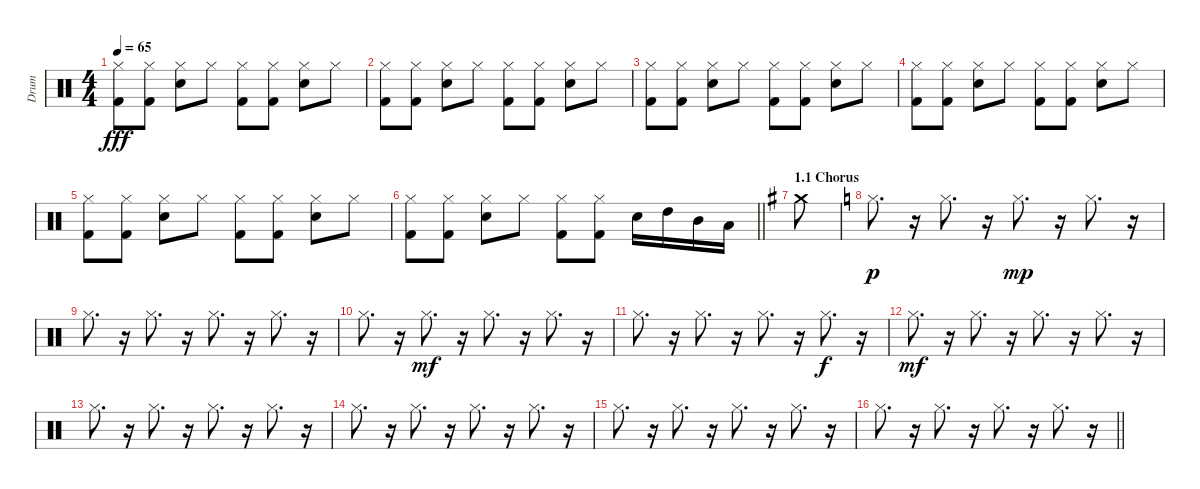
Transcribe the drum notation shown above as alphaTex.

\track ("Drum" "Drum") {instrument percussion}
\staff {score}
\articulation defaults
\ts (4 4)
\tempo 65
\clef neutral
\ks c
("Hi-Hat (closed)" "Kick (hit) 2").8{dy fff} ("Kick (hit) 2" "Hi-Hat (closed)").8 ("Electric Snare (hit)" "Hi-Hat (closed)").8 "Hi-Hat (closed)".8 ("Kick (hit) 2" "Hi-Hat (closed)").8 ("Kick (hit) 2" "Hi-Hat (closed)").8 ("Electric Snare (hit)" "Hi-Hat (closed)").8 "Hi-Hat (closed)".8 |
("Hi-Hat (closed)" "Kick (hit) 2").8 ("Kick (hit) 2" "Hi-Hat (closed)").8 ("Electric Snare (hit)" "Hi-Hat (closed)").8 "Hi-Hat (closed)".8 ("Kick (hit) 2" "Hi-Hat (closed)").8 ("Kick (hit) 2" "Hi-Hat (closed)").8 ("Electric Snare (hit)" "Hi-Hat (closed)").8 "Hi-Hat (closed)".8 |
("Hi-Hat (closed)" "Kick (hit) 2").8 ("Kick (hit) 2" "Hi-Hat (closed)").8 ("Electric Snare (hit)" "Hi-Hat (closed)").8 "Hi-Hat (closed)".8 ("Kick (hit) 2" "Hi-Hat (closed)").8 ("Kick (hit) 2" "Hi-Hat (closed)").8 ("Electric Snare (hit)" "Hi-Hat (closed)").8 "Hi-Hat (closed)".8 |
("Hi-Hat (closed)" "Kick (hit) 2").8 ("Kick (hit) 2" "Hi-Hat (closed)").8 ("Electric Snare (hit)" "Hi-Hat (closed)").8 "Hi-Hat (closed)".8 ("Kick (hit) 2" "Hi-Hat (closed)").8 ("Kick (hit) 2" "Hi-Hat (closed)").8 ("Electric Snare (hit)" "Hi-Hat (closed)").8 "Hi-Hat (closed)".8 |
("Hi-Hat (closed)" "Kick (hit) 2").8 ("Kick (hit) 2" "Hi-Hat (closed)").8 ("Electric Snare (hit)" "Hi-Hat (closed)").8 "Hi-Hat (closed)".8 ("Kick (hit) 2" "Hi-Hat (closed)").8 ("Kick (hit) 2" "Hi-Hat (closed)").8 ("Electric Snare (hit)" "Hi-Hat (closed)").8 "Hi-Hat (closed)".8 |
\barLineRight lightlight
("Hi-Hat (closed)" "Kick (hit) 2").8 ("Kick (hit) 2" "Hi-Hat (closed)").8 ("Electric Snare (hit)" "Hi-Hat (closed)").8 "Hi-Hat (closed)".8 ("Hi-Hat (closed)" "Kick (hit) 2").8 ("Hi-Hat (closed)" "Kick (hit) 2").8 "Electric Snare (hit)".16 "High Tom (hit)".16 "Mid Tom (hit)".16 "Low Tom (hit)".16 |
\section ("" "1.1 Chorus ")
\ks eminor "Crash medium (hit)".8
|
\ks c "Hi-Hat (closed)".8{d dy p}
r.16 "Hi-Hat (closed)".8{d} r.16 "Hi-Hat (closed)".8{d dy mp} r.16 "Hi-Hat (closed)".8{d} r.16 |
"Hi-Hat (closed)".8{d} r.16 "Hi-Hat (closed)".8{d} r.16 "Hi-Hat (closed)".8{d} r.16 "Hi-Hat (closed)".8{d} r.16 |
"Hi-Hat (closed)".8{d} r.16 "Hi-Hat (closed)".8{d dy mf} r.16 "Hi-Hat (closed)".8{d} r.16 "Hi-Hat (closed)".8{d} r.16 |
"Hi-Hat (closed)".8{d} r.16 "Hi-Hat (closed)".8{d} r.16 "Hi-Hat (closed)".8{d} r.16 "Hi-Hat (closed)".8{d dy f} r.16 |
"Hi-Hat (closed)".8{d dy mf} r.16 "Hi-Hat (closed)".8{d} r.16 "Hi-Hat (closed)".8{d} r.16 "Hi-Hat (closed)".8{d} r.16 |
"Hi-Hat (closed)".8{d} r.16 "Hi-Hat (closed)".8{d} r.16 "Hi-Hat (closed)".8{d} r.16 "Hi-Hat (closed)".8{d} r.16 |
"Hi-Hat (closed)".8{d} r.16 "Hi-Hat (closed)".8{d} r.16 "Hi-Hat (closed)".8{d} r.16 "Hi-Hat (closed)".8{d} r.16 |
"Hi-Hat (closed)".8{d} r.16 "Hi-Hat (closed)".8{d} r.16 "Hi-Hat (closed)".8{d} r.16 "Hi-Hat (closed)".8{d} r.16 |
\barLineRight lightlight "Hi-Hat (closed)".8{d}
r.16 "Hi-Hat (closed)".8{d} r.16 "Hi-Hat (closed)".8{d} r.16 "Hi-Hat (closed)".8{d} r.16
